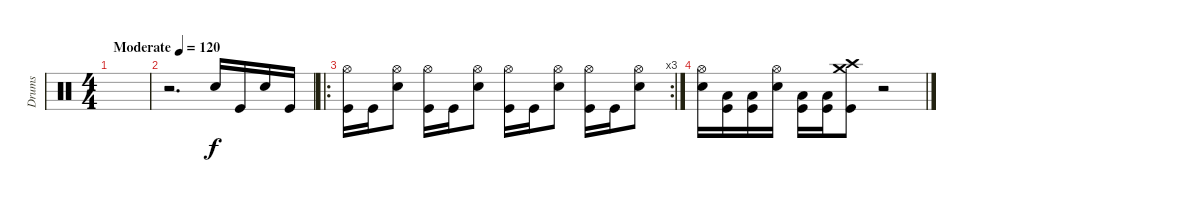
\track ("Drums" "Drums") {instrument percussion}
\staff {score}
\articulation defaults
\ts (4 4)
\tempo (120 "Moderate")
\clef neutral
\ks c
|
r.2{d} "Snare (hit) 2".16 "Kick (hit)".16 "Snare (hit) 2".16 "Kick (hit)".16 |
\ro
\rc 3
("Hi-Hat (open)" "Kick (hit)").16 "Kick (hit)".16 ("Hi-Hat (open)" "Snare (hit) 2").8 ("Hi-Hat (open)" "Kick (hit)").16 "Kick (hit)".16 ("Hi-Hat (open)" "Snare (hit) 2").8 ("Hi-Hat (open)" "Kick (hit)").16 "Kick (hit)".16 ("Hi-Hat (open)" "Snare (hit) 2").8 ("Hi-Hat (open)" "Kick (hit)").16 "Kick (hit)".16 ("Hi-Hat (open)" "Snare (hit) 2").8 |
("Hi-Hat (open)" "Snare (hit) 2").16 ("Low Floor Tom (hit)" "Kick (hit)").16 ("Low Floor Tom (hit)" "Kick (hit)").16 ("Hi-Hat (open)" "Snare (hit) 2").16 ("Low Floor Tom (hit)" "Kick (hit)").16 ("Low Floor Tom (hit)" "Kick (hit)").16 ("Crash medium (hit)" "Crash high (hit)" "Kick (hit)").8 r.2
